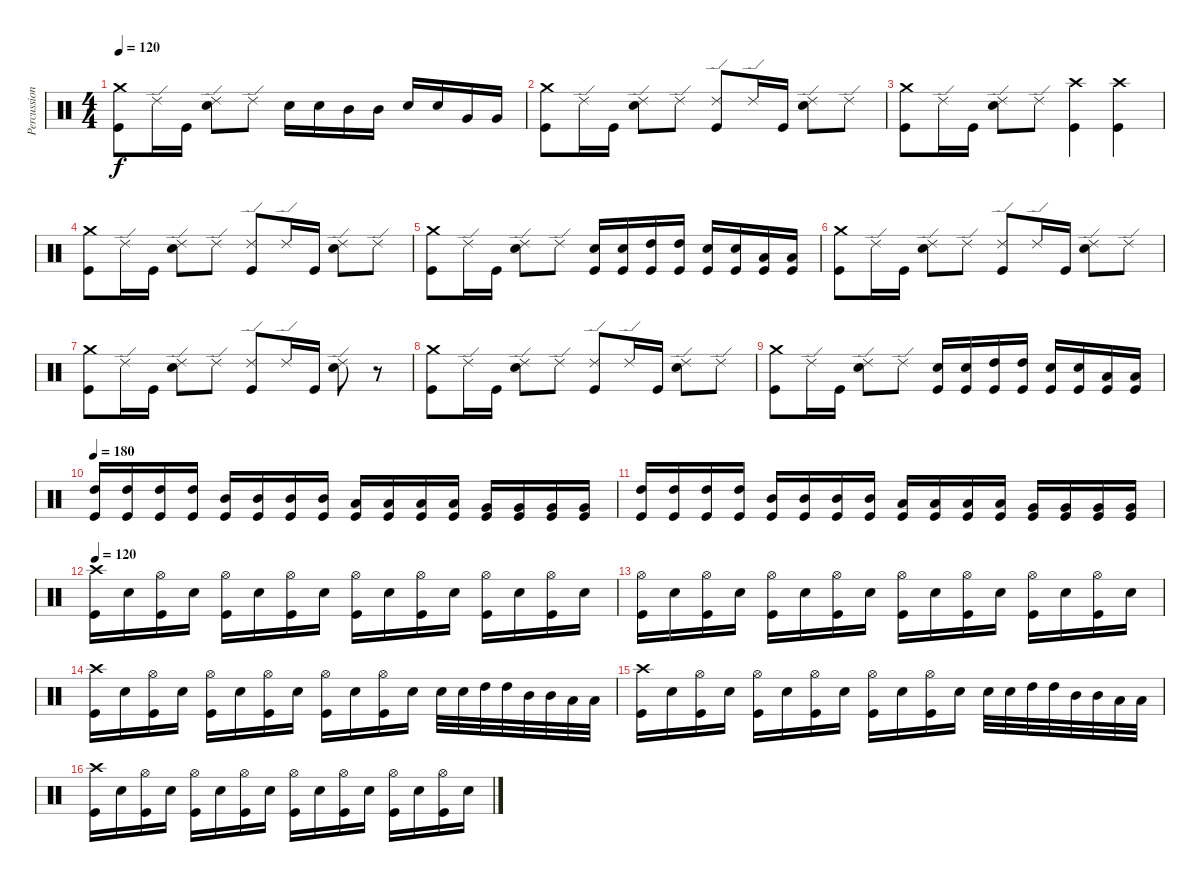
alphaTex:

\track ("Percussion" "Percussion") {instrument percussion}
\staff {score}
\articulation defaults
\ts (4 4)
\tempo 120
\clef neutral
\ks c
("Crash medium (hit)" "Kick (hit)").8{dy f} "Ride (edge) 2".16 "Kick (hit)".16 ("Ride (edge) 2" "Electric Snare (hit)").8 "Ride (edge) 2".8 "Electric Snare (hit)".16 "Electric Snare (hit)".16 "Mid Tom (hit)".16 "Mid Tom (hit)".16 "Electric Snare (hit)".16 "Electric Snare (hit)".16 "Very Low Tom (hit)".16 "Very Low Tom (hit)".16 |
("Crash medium (hit)" "Kick (hit)").8 "Ride (edge) 2".16 "Kick (hit)".16 ("Ride (edge) 2" "Electric Snare (hit)").8 "Ride (edge) 2".8 ("Ride (edge) 2" "Kick (hit)").8 "Ride (edge) 2".16 "Kick (hit)".16 ("Ride (edge) 2" "Electric Snare (hit)").8 "Ride (edge) 2".8 |
("Crash medium (hit)" "Kick (hit)").8 "Ride (edge) 2".16 "Kick (hit)".16 ("Ride (edge) 2" "Electric Snare (hit)").8 "Ride (edge) 2".8 ("Crash high (hit)" "Kick (hit)").4 ("Crash high (hit)" "Kick (hit)").4 |
("Crash medium (hit)" "Kick (hit)").8 "Ride (edge) 2".16 "Kick (hit)".16 ("Ride (edge) 2" "Electric Snare (hit)").8 "Ride (edge) 2".8 ("Ride (edge) 2" "Kick (hit)").8 "Ride (edge) 2".16 "Kick (hit)".16 ("Ride (edge) 2" "Electric Snare (hit)").8 "Ride (edge) 2".8 |
("Crash medium (hit)" "Kick (hit)").8 "Ride (edge) 2".16 "Kick (hit)".16 ("Ride (edge) 2" "Electric Snare (hit)").8 "Ride (edge) 2".8 ("Electric Snare (hit)" "Kick (hit)").16 ("Electric Snare (hit)" "Kick (hit)").16 ("High Tom (hit)" "Kick (hit)").16 ("High Tom (hit)" "Kick (hit)").16 ("Electric Snare (hit)" "Kick (hit)").16 ("Electric Snare (hit)" "Kick (hit)").16 ("Low Tom (hit)" "Kick (hit)").16 ("Low Tom (hit)" "Kick (hit)").16 |
("Crash medium (hit)" "Kick (hit)").8 "Ride (edge) 2".16 "Kick (hit)".16 ("Ride (edge) 2" "Electric Snare (hit)").8 "Ride (edge) 2".8 ("Ride (edge) 2" "Kick (hit)").8 "Ride (edge) 2".16 "Kick (hit)".16 ("Ride (edge) 2" "Electric Snare (hit)").8 "Ride (edge) 2".8 |
("Crash medium (hit)" "Kick (hit)").8 "Ride (edge) 2".16 "Kick (hit)".16 ("Ride (edge) 2" "Electric Snare (hit)").8 "Ride (edge) 2".8 ("Ride (edge) 2" "Kick (hit)").8 "Ride (edge) 2".16 "Kick (hit)".16 ("Ride (edge) 2" "Electric Snare (hit)").8 r.8 |
("Crash medium (hit)" "Kick (hit)").8 "Ride (edge) 2".16 "Kick (hit)".16 ("Ride (edge) 2" "Electric Snare (hit)").8 "Ride (edge) 2".8 ("Ride (edge) 2" "Kick (hit)").8 "Ride (edge) 2".16 "Kick (hit)".16 ("Ride (edge) 2" "Electric Snare (hit)").8 "Ride (edge) 2".8 |
("Crash medium (hit)" "Kick (hit)").8 "Ride (edge) 2".16 "Kick (hit)".16 ("Ride (edge) 2" "Electric Snare (hit)").8 "Ride (edge) 2".8 ("Electric Snare (hit)" "Kick (hit)").16 ("Electric Snare (hit)" "Kick (hit)").16 ("High Tom (hit)" "Kick (hit)").16 ("High Tom (hit)" "Kick (hit)").16 ("Electric Snare (hit)" "Kick (hit)").16 ("Electric Snare (hit)" "Kick (hit)").16 ("Low Tom (hit)" "Kick (hit)").16 ("Low Tom (hit)" "Kick (hit)").16 |
\tempo 180
("High Tom (hit)" "Kick (hit)").16 ("High Tom (hit)" "Kick (hit)").16 ("High Tom (hit)" "Kick (hit)").16 ("High Tom (hit)" "Kick (hit)").16 ("Mid Tom (hit)" "Kick (hit)").16 ("Mid Tom (hit)" "Kick (hit)").16 ("Mid Tom (hit)" "Kick (hit)").16 ("Mid Tom (hit)" "Kick (hit)").16 ("Low Tom (hit)" "Kick (hit)").16 ("Low Tom (hit)" "Kick (hit)").16 ("Low Tom (hit)" "Kick (hit)").16 ("Low Tom (hit)" "Kick (hit)").16 ("Very Low Tom (hit)" "Kick (hit)").16 ("Very Low Tom (hit)" "Kick (hit)").16 ("Very Low Tom (hit)" "Kick (hit)").16 ("Very Low Tom (hit)" "Kick (hit)").16 |
("High Tom (hit)" "Kick (hit)").16 ("High Tom (hit)" "Kick (hit)").16 ("High Tom (hit)" "Kick (hit)").16 ("High Tom (hit)" "Kick (hit)").16 ("Mid Tom (hit)" "Kick (hit)").16 ("Mid Tom (hit)" "Kick (hit)").16 ("Mid Tom (hit)" "Kick (hit)").16 ("Mid Tom (hit)" "Kick (hit)").16 ("Low Tom (hit)" "Kick (hit)").16 ("Low Tom (hit)" "Kick (hit)").16 ("Low Tom (hit)" "Kick (hit)").16 ("Low Tom (hit)" "Kick (hit)").16 ("Very Low Tom (hit)" "Kick (hit)").16 ("Very Low Tom (hit)" "Kick (hit)").16 ("Very Low Tom (hit)" "Kick (hit)").16 ("Very Low Tom (hit)" "Kick (hit)").16 |
\tempo 120
("Crash high (hit)" "Kick (hit)").16 "Electric Snare (hit)".16 ("Hi-Hat (open)" "Kick (hit)").16 "Electric Snare (hit)".16 ("Hi-Hat (open)" "Kick (hit)").16 "Electric Snare (hit)".16 ("Hi-Hat (open)" "Kick (hit)").16 "Electric Snare (hit)".16 ("Hi-Hat (open)" "Kick (hit)").16 "Electric Snare (hit)".16 ("Hi-Hat (open)" "Kick (hit)").16 "Electric Snare (hit)".16 ("Hi-Hat (open)" "Kick (hit)").16 "Electric Snare (hit)".16 ("Hi-Hat (open)" "Kick (hit)").16 "Electric Snare (hit)".16 |
("Hi-Hat (open)" "Kick (hit)").16 "Electric Snare (hit)".16 ("Hi-Hat (open)" "Kick (hit)").16 "Electric Snare (hit)".16 ("Hi-Hat (open)" "Kick (hit)").16 "Electric Snare (hit)".16 ("Hi-Hat (open)" "Kick (hit)").16 "Electric Snare (hit)".16 ("Hi-Hat (open)" "Kick (hit)").16 "Electric Snare (hit)".16 ("Hi-Hat (open)" "Kick (hit)").16 "Electric Snare (hit)".16 ("Hi-Hat (open)" "Kick (hit)").16 "Electric Snare (hit)".16 ("Hi-Hat (open)" "Kick (hit)").16 "Electric Snare (hit)".16 |
("Crash high (hit)" "Kick (hit)").16 "Electric Snare (hit)".16 ("Hi-Hat (open)" "Kick (hit)").16 "Electric Snare (hit)".16 ("Hi-Hat (open)" "Kick (hit)").16 "Electric Snare (hit)".16 ("Hi-Hat (open)" "Kick (hit)").16 "Electric Snare (hit)".16 ("Hi-Hat (open)" "Kick (hit)").16 "Electric Snare (hit)".16 ("Hi-Hat (open)" "Kick (hit)").16 "Electric Snare (hit)".16 "Electric Snare (hit)".32 "Electric Snare (hit)".32 "High Tom (hit)".32 "High Tom (hit)".32 "Mid Tom (hit)".32 "Mid Tom (hit)".32 "Low Tom (hit)".32 "Low Tom (hit)".32 |
("Crash high (hit)" "Kick (hit)").16 "Electric Snare (hit)".16 ("Hi-Hat (open)" "Kick (hit)").16 "Electric Snare (hit)".16 ("Hi-Hat (open)" "Kick (hit)").16 "Electric Snare (hit)".16 ("Hi-Hat (open)" "Kick (hit)").16 "Electric Snare (hit)".16 ("Hi-Hat (open)" "Kick (hit)").16 "Electric Snare (hit)".16 ("Hi-Hat (open)" "Kick (hit)").16 "Electric Snare (hit)".16 "Electric Snare (hit)".32 "Electric Snare (hit)".32 "High Tom (hit)".32 "High Tom (hit)".32 "Mid Tom (hit)".32 "Mid Tom (hit)".32 "Low Tom (hit)".32 "Low Tom (hit)".32 |
("Crash high (hit)" "Kick (hit)").16 "Electric Snare (hit)".16 ("Hi-Hat (open)" "Kick (hit)").16 "Electric Snare (hit)".16 ("Hi-Hat (open)" "Kick (hit)").16 "Electric Snare (hit)".16 ("Hi-Hat (open)" "Kick (hit)").16 "Electric Snare (hit)".16 ("Hi-Hat (open)" "Kick (hit)").16 "Electric Snare (hit)".16 ("Hi-Hat (open)" "Kick (hit)").16 "Electric Snare (hit)".16 ("Hi-Hat (open)" "Kick (hit)").16 "Electric Snare (hit)".16 ("Hi-Hat (open)" "Kick (hit)").16 "Electric Snare (hit)".16
